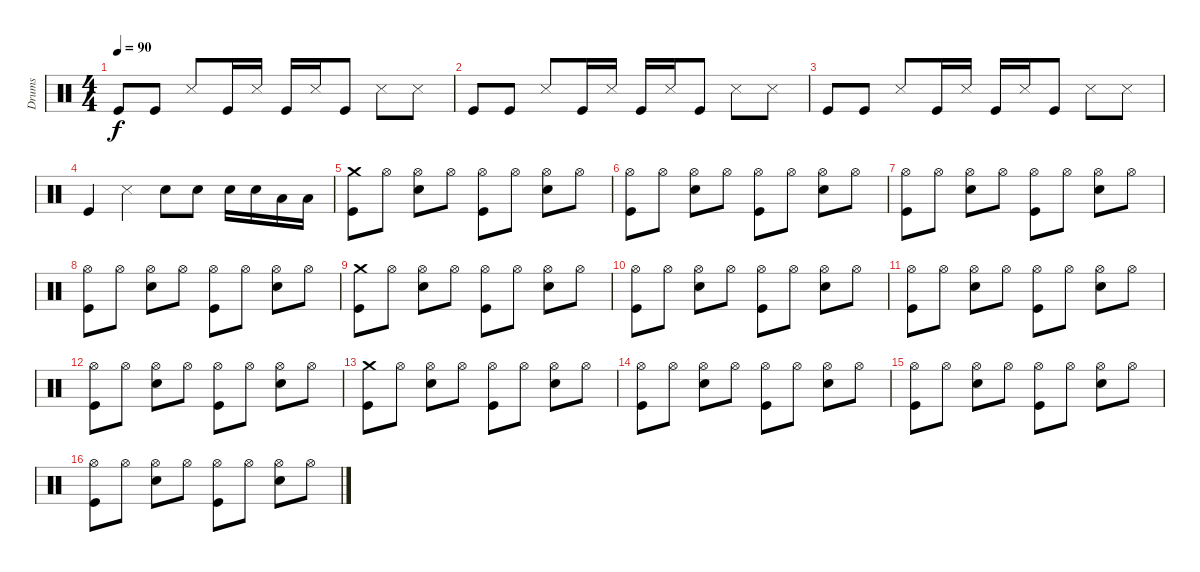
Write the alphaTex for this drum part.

\track ("Drums" "Drums") {instrument percussion}
\staff {score}
\articulation defaults
\ts (4 4)
\tempo 90
\clef neutral
\ks c "Kick (hit)".8{dy f} "Kick (hit)".8 "Metronome (hit)".8 "Kick (hit)".16 "Metronome (hit)".16 "Kick (hit)".16 "Metronome (hit)".16 "Kick (hit)".8 "Metronome (hit)".8 "Metronome (hit)".8
|
"Kick (hit)".8 "Kick (hit)".8 "Metronome (hit)".8 "Kick (hit)".16 "Metronome (hit)".16 "Kick (hit)".16 "Metronome (hit)".16 "Kick (hit)".8 "Metronome (hit)".8 "Metronome (hit)".8 |
"Kick (hit)".8 "Kick (hit)".8 "Metronome (hit)".8 "Kick (hit)".16 "Metronome (hit)".16 "Kick (hit)".16 "Metronome (hit)".16 "Kick (hit)".8 "Metronome (hit)".8 "Metronome (hit)".8 |
"Kick (hit)".4 "Metronome (hit)".4 "Hand Clap (hit)".8 "Hand Clap (hit)".8 "Snare (hit) 2".16 "Snare (hit) 2".16 "Low Tom (hit)".16 "Low Tom (hit)".16 |
("Kick (hit)" "Crash medium (hit)").8 "Hi-Hat (open)".8 ("Snare (hit) 2" "Hi-Hat (open)").8 "Hi-Hat (open)".8 ("Kick (hit)" "Hi-Hat (open)").8 "Hi-Hat (open)".8 ("Snare (hit) 2" "Hi-Hat (open)").8 "Hi-Hat (open)".8 |
("Kick (hit)" "Hi-Hat (open)").8 "Hi-Hat (open)".8 ("Snare (hit) 2" "Hi-Hat (open)").8 "Hi-Hat (open)".8 ("Kick (hit)" "Hi-Hat (open)").8 "Hi-Hat (open)".8 ("Snare (hit) 2" "Hi-Hat (open)").8 "Hi-Hat (open)".8 |
("Kick (hit)" "Hi-Hat (open)").8 "Hi-Hat (open)".8 ("Snare (hit) 2" "Hi-Hat (open)").8 "Hi-Hat (open)".8 ("Kick (hit)" "Hi-Hat (open)").8 "Hi-Hat (open)".8 ("Snare (hit) 2" "Hi-Hat (open)").8 "Hi-Hat (open)".8 |
("Kick (hit)" "Hi-Hat (open)").8 "Hi-Hat (open)".8 ("Snare (hit) 2" "Hi-Hat (open)").8 "Hi-Hat (open)".8 ("Kick (hit)" "Hi-Hat (open)").8 "Hi-Hat (open)".8 ("Snare (hit) 2" "Hi-Hat (open)").8 "Hi-Hat (open)".8 |
("Kick (hit)" "Crash medium (hit)").8 "Hi-Hat (open)".8 ("Snare (hit) 2" "Hi-Hat (open)").8 "Hi-Hat (open)".8 ("Kick (hit)" "Hi-Hat (open)").8 "Hi-Hat (open)".8 ("Snare (hit) 2" "Hi-Hat (open)").8 "Hi-Hat (open)".8 |
("Kick (hit)" "Hi-Hat (open)").8 "Hi-Hat (open)".8 ("Snare (hit) 2" "Hi-Hat (open)").8 "Hi-Hat (open)".8 ("Kick (hit)" "Hi-Hat (open)").8 "Hi-Hat (open)".8 ("Snare (hit) 2" "Hi-Hat (open)").8 "Hi-Hat (open)".8 |
("Kick (hit)" "Hi-Hat (open)").8 "Hi-Hat (open)".8 ("Snare (hit) 2" "Hi-Hat (open)").8 "Hi-Hat (open)".8 ("Kick (hit)" "Hi-Hat (open)").8 "Hi-Hat (open)".8 ("Snare (hit) 2" "Hi-Hat (open)").8 "Hi-Hat (open)".8 |
("Kick (hit)" "Hi-Hat (open)").8 "Hi-Hat (open)".8 ("Snare (hit) 2" "Hi-Hat (open)").8 "Hi-Hat (open)".8 ("Kick (hit)" "Hi-Hat (open)").8 "Hi-Hat (open)".8 ("Snare (hit) 2" "Hi-Hat (open)").8 "Hi-Hat (open)".8 |
("Kick (hit)" "Crash medium (hit)").8 "Hi-Hat (open)".8 ("Snare (hit) 2" "Hi-Hat (open)").8 "Hi-Hat (open)".8 ("Kick (hit)" "Hi-Hat (open)").8 "Hi-Hat (open)".8 ("Snare (hit) 2" "Hi-Hat (open)").8 "Hi-Hat (open)".8 |
("Kick (hit)" "Hi-Hat (open)").8 "Hi-Hat (open)".8 ("Snare (hit) 2" "Hi-Hat (open)").8 "Hi-Hat (open)".8 ("Kick (hit)" "Hi-Hat (open)").8 "Hi-Hat (open)".8 ("Snare (hit) 2" "Hi-Hat (open)").8 "Hi-Hat (open)".8 |
("Kick (hit)" "Hi-Hat (open)").8 "Hi-Hat (open)".8 ("Snare (hit) 2" "Hi-Hat (open)").8 "Hi-Hat (open)".8 ("Kick (hit)" "Hi-Hat (open)").8 "Hi-Hat (open)".8 ("Snare (hit) 2" "Hi-Hat (open)").8 "Hi-Hat (open)".8 |
("Kick (hit)" "Hi-Hat (open)").8 "Hi-Hat (open)".8 ("Snare (hit) 2" "Hi-Hat (open)").8 "Hi-Hat (open)".8 ("Kick (hit)" "Hi-Hat (open)").8 "Hi-Hat (open)".8 ("Snare (hit) 2" "Hi-Hat (open)").8 "Hi-Hat (open)".8
